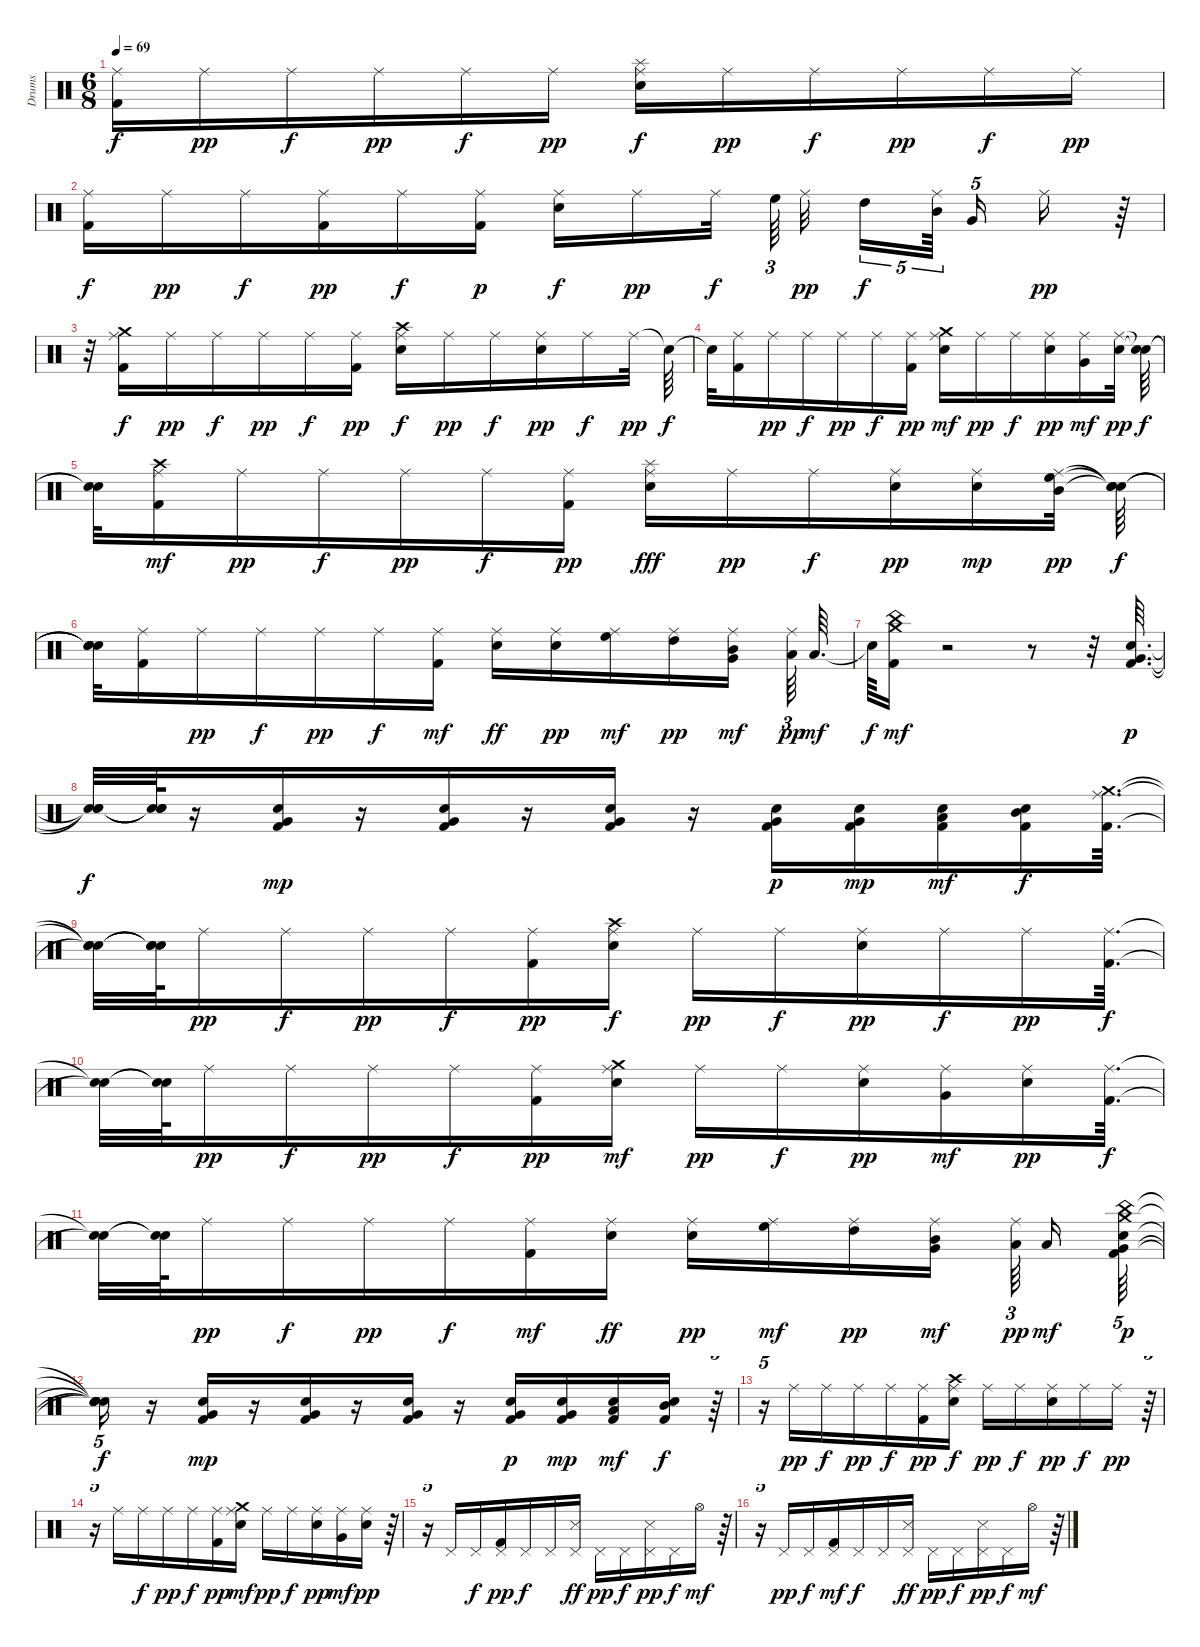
\track ("Drums" "Drums") {instrument percussion}
\staff {score}
\articulation defaults
\ts (6 8)
\tempo 69
\clef neutral
\ks c
("Kick (hit) 2" "Ride (middle)").16{dy f} "Ride (middle)".16{dy pp} "Ride (middle)".16{dy f} "Ride (middle)".16{dy pp} "Ride (middle)".16{dy f} "Ride (middle)".16{dy pp} ("Snare (hit) 2" "Splash (hit)" "Ride (middle)").16{dy f} "Ride (middle)".16{dy pp} "Ride (middle)".16{dy f} "Ride (middle)".16{dy pp} "Ride (middle)".16{dy f} "Ride (middle)".16{dy pp} |
("Kick (hit) 2" "Ride (middle)").16{dy f} "Ride (middle)".16{dy pp} "Ride (middle)".16{dy f} ("Kick (hit) 2" "Ride (middle)").16{dy pp} "Ride (middle)".16{dy f} ("Kick (hit) 2" "Ride (middle)").16{dy p} ("Snare (hit) 2" "Ride (middle)").16{dy f} "Ride (middle)".16{dy pp} "Ride (middle)".32{dy f beam splitsecondary} "High Floor Tom (hit)".64{tu (3 2) beam splitsecondary} "Ride (middle)".32{dy pp beam splitsecondary} "High Tom (hit)".16{tu (5 4) dy f} ("Mid Tom (hit)" "Ride (middle)").64{tu (5 4) beam splitsecondary} "Very Low Tom (hit)".16{tu (5 4)} "Ride (middle)".16{dy pp} r.64 |
r.32 ("Kick (hit) 2" "Crash medium (hit)" "Ride (middle)").16{dy f} "Ride (middle)".16{dy pp} "Ride (middle)".16{dy f} "Ride (middle)".16{dy pp} "Ride (middle)".16{dy f} ("Kick (hit) 2" "Ride (middle)").16{dy pp} ("Snare (hit) 2" "Crash high (hit)" "Ride (middle)").16{dy f} "Ride (middle)".16{dy pp} "Ride (middle)".16{dy f} ("Snare (hit) 2" "Ride (middle)").16{dy pp} "Ride (middle)".16{dy f} "Ride (middle)".32{dy pp} "Snare (hit)"{t}.64{dy f} |
"Snare (hit)"{t}.32 ("Kick (hit) 2" "Ride (middle)").16 "Ride (middle)".16{dy pp} "Ride (middle)".16{dy f} "Ride (middle)".16{dy pp} "Ride (middle)".16{dy f} ("Kick (hit) 2" "Ride (middle)").16{dy pp} ("Crash medium (hit)" "Snare (hit) 2" "Ride (middle)").16{dy mf} "Ride (middle)".16{dy pp} "Ride (middle)".16{dy f} ("Snare (hit) 2" "Ride (middle)").16{dy pp} ("Very Low Tom (hit)" "Ride (middle)").16{dy mf} ("Snare (hit) 2" "Ride (middle)").32{dy pp} ("Snare (hit)"{t} "Snare (hit)"{t}).64{dy f} |
("Snare (hit)"{t} "Snare (hit)"{t}).32 ("Crash high (hit)" "Kick (hit) 2" "Ride (middle)").16{dy mf} "Ride (middle)".16{dy pp} "Ride (middle)".16{dy f} "Ride (middle)".16{dy pp} "Ride (middle)".16{dy f} ("Kick (hit) 2" "Ride (middle)").16{dy pp} ("Splash (hit)" "Snare (hit) 2" "Ride (middle)").16{dy fff} "Ride (middle)".16{dy pp} "Ride (middle)".16{dy f} ("Snare (hit) 2" "Ride (middle)").16{dy pp} ("Snare (hit) 2" "Ride (middle)").16{dy mp} ("Mid Tom (hit)" "High Floor Tom (hit)" "Ride (middle)").32{dy pp} ("Snare (hit)"{t} "Snare (hit)"{t} "Snare (hit)"{t}).64{dy f} |
("Snare (hit)"{t} "Snare (hit)"{t} "Snare (hit)"{t}).32 ("Kick (hit) 2" "Ride (middle)").16 "Ride (middle)".16{dy pp} "Ride (middle)".16{dy f} "Ride (middle)".16{dy pp} "Ride (middle)".16{dy f} ("Kick (hit) 2" "Ride (middle)").16{dy mf} ("Snare (hit) 2" "Ride (middle)").16{dy ff} ("Snare (hit) 2" "Ride (middle)").16{dy pp} ("High Floor Tom (hit)" "Ride (middle)").16{dy mf} ("High Tom (hit)" "Ride (middle)").16{dy pp} ("Mid Tom (hit)" "Very Low Tom (hit)" "Ride (middle)").16{dy mf beam splitsecondary} ("Low Tom (hit)" "Ride (middle)").64{tu (3 2) dy pp} "Low Floor Tom (hit)".64{d dy mf} |
"Snare (hit)"{t}.64{dy f} ("China (hit)" "Crash medium (hit)" "Kick (hit) 2").16{dy mf} r.2 r.8 r.32 ("Kick (hit) 2" "Snare (hit) 2" "Very Low Tom (hit)").64{d dy p} |
("Snare (hit)"{t} "Snare (hit)"{t} "Snare (hit)"{t}).32{dy f} ("Snare (hit)"{t} "Snare (hit)"{t} "Snare (hit)"{t}).64 r.16 ("Kick (hit) 2" "Snare (hit) 2" "Very Low Tom (hit)").16{dy mp} r.16 ("Kick (hit) 2" "Snare (hit) 2" "Very Low Tom (hit)").16 r.16 ("Kick (hit) 2" "Snare (hit) 2" "Very Low Tom (hit)").16 r.16 ("Very Low Tom (hit)" "Snare (hit) 2" "Kick (hit) 2").16{dy p} ("Very Low Tom (hit)" "Snare (hit) 2" "Kick (hit) 2").16{dy mp} ("Low Tom (hit)" "Snare (hit) 2" "Kick (hit) 2").16{dy mf} ("Mid Tom (hit)" "Snare (hit) 2" "Kick (hit) 2").16{dy f} ("Kick (hit) 2" "Crash medium (hit)" "Ride (middle)").64{d} |
("Snare (hit)"{t} "Snare (hit)"{t} "Snare (hit)"{t}).32 ("Snare (hit)"{t} "Snare (hit)"{t} "Snare (hit)"{t}).64 "Ride (middle)".16{dy pp} "Ride (middle)".16{dy f} "Ride (middle)".16{dy pp} "Ride (middle)".16{dy f} ("Kick (hit) 2" "Ride (middle)").16{dy pp} ("Snare (hit) 2" "Crash high (hit)" "Ride (middle)").16{dy f} "Ride (middle)".16{dy pp} "Ride (middle)".16{dy f} ("Snare (hit) 2" "Ride (middle)").16{dy pp} "Ride (middle)".16{dy f} "Ride (middle)".16{dy pp} ("Kick (hit) 2" "Ride (middle)").64{d dy f} |
("Snare (hit)"{t} "Snare (hit)"{t}).32 ("Snare (hit)"{t} "Snare (hit)"{t}).64 "Ride (middle)".16{dy pp} "Ride (middle)".16{dy f} "Ride (middle)".16{dy pp} "Ride (middle)".16{dy f} ("Kick (hit) 2" "Ride (middle)").16{dy pp} ("Crash medium (hit)" "Snare (hit) 2" "Ride (middle)").16{dy mf} "Ride (middle)".16{dy pp} "Ride (middle)".16{dy f} ("Snare (hit) 2" "Ride (middle)").16{dy pp} ("Very Low Tom (hit)" "Ride (middle)").16{dy mf} ("Snare (hit) 2" "Ride (middle)").16{dy pp} ("Kick (hit) 2" "Ride (middle)").64{d dy f} |
("Snare (hit)"{t} "Snare (hit)"{t}).32 ("Snare (hit)"{t} "Snare (hit)"{t}).64 "Ride (middle)".16{dy pp} "Ride (middle)".16{dy f} "Ride (middle)".16{dy pp} "Ride (middle)".16{dy f} ("Kick (hit) 2" "Ride (middle)").16{dy mf} ("Snare (hit) 2" "Ride (middle)").16{dy ff} ("Snare (hit) 2" "Ride (middle)").16{dy pp} ("High Floor Tom (hit)" "Ride (middle)").16{dy mf} ("High Tom (hit)" "Ride (middle)").16{dy pp} ("Mid Tom (hit)" "Very Low Tom (hit)" "Ride (middle)").16{dy mf beam splitsecondary} ("Low Tom (hit)" "Ride (middle)").64{tu (3 2) dy pp beam splitsecondary} "Low Floor Tom (hit)".16{dy mf} ("China (hit)" "Crash medium (hit)" "Kick (hit) 2" "Snare (hit) 2" "Very Low Tom (hit)").64{tu (5 4) dy p} |
("Snare (hit)"{t} "Snare (hit)"{t} "Snare (hit)"{t} "Snare (hit)"{t} "Snare (hit)"{t}).16{tu (5 4) dy f} r.16 ("Kick (hit) 2" "Snare (hit) 2" "Very Low Tom (hit)").16{dy mp} r.16 ("Kick (hit) 2" "Snare (hit) 2" "Very Low Tom (hit)").16 r.16 ("Kick (hit) 2" "Snare (hit) 2" "Very Low Tom (hit)").16 r.16 ("Very Low Tom (hit)" "Snare (hit) 2" "Kick (hit) 2").16{dy p} ("Very Low Tom (hit)" "Snare (hit) 2" "Kick (hit) 2").16{dy mp} ("Low Tom (hit)" "Snare (hit) 2" "Kick (hit) 2").16{dy mf} ("Mid Tom (hit)" "Snare (hit) 2" "Kick (hit) 2").16{dy f} r.64{tu (5 4)} |
r.16{tu (5 4)} "Ride (middle)".16{dy pp} "Ride (middle)".16{dy f} "Ride (middle)".16{dy pp} "Ride (middle)".16{dy f} ("Kick (hit) 2" "Ride (middle)").16{dy pp} ("Snare (hit) 2" "Crash high (hit)" "Ride (middle)").16{dy f} "Ride (middle)".16{dy pp} "Ride (middle)".16{dy f} ("Snare (hit) 2" "Ride (middle)").16{dy pp} "Ride (middle)".16{dy f} "Ride (middle)".16{dy pp} r.64{tu (5 4)} |
r.16{tu (5 4)} "Ride (middle)".16 "Ride (middle)".16{dy f} "Ride (middle)".16{dy pp} "Ride (middle)".16{dy f} ("Kick (hit) 2" "Ride (middle)").16{dy pp} ("Crash medium (hit)" "Snare (hit) 2" "Ride (middle)").16{dy mf} "Ride (middle)".16{dy pp} "Ride (middle)".16{dy f} ("Snare (hit) 2" "Ride (middle)").16{dy pp} ("Very Low Tom (hit)" "Ride (middle)").16{dy mf} ("Snare (hit) 2" "Ride (middle)").16{dy pp} r.64{tu (5 4)} |
r.16{tu (5 4)} "Pedal Hi-Hat (hit)".16 "Pedal Hi-Hat (hit)".16{dy f} ("Kick (hit) 2" "Pedal Hi-Hat (hit)").16{dy pp} "Pedal Hi-Hat (hit)".16{dy f} "Pedal Hi-Hat (hit)".16 ("Snare (side stick) 3" "Pedal Hi-Hat (hit)").16{dy ff} "Pedal Hi-Hat (hit)".16{dy pp} "Pedal Hi-Hat (hit)".16{dy f} ("Snare (side stick) 3" "Pedal Hi-Hat (hit)").16{dy pp} "Pedal Hi-Hat (hit)".16{dy f} "Hi-Hat (open)".16{dy mf} r.64{tu (5 4)} |
r.16{tu (5 4)} "Pedal Hi-Hat (hit)".16{dy pp} "Pedal Hi-Hat (hit)".16{dy f} ("Pedal Hi-Hat (hit)" "Kick (hit) 2").16{dy mf} "Pedal Hi-Hat (hit)".16{dy f} "Pedal Hi-Hat (hit)".16 ("Snare (side stick) 3" "Pedal Hi-Hat (hit)").16{dy ff} "Pedal Hi-Hat (hit)".16{dy pp} "Pedal Hi-Hat (hit)".16{dy f} ("Snare (side stick) 3" "Pedal Hi-Hat (hit)").16{dy pp} "Pedal Hi-Hat (hit)".16{dy f} "Hi-Hat (open)".16{dy mf} r.64{tu (5 4)}
